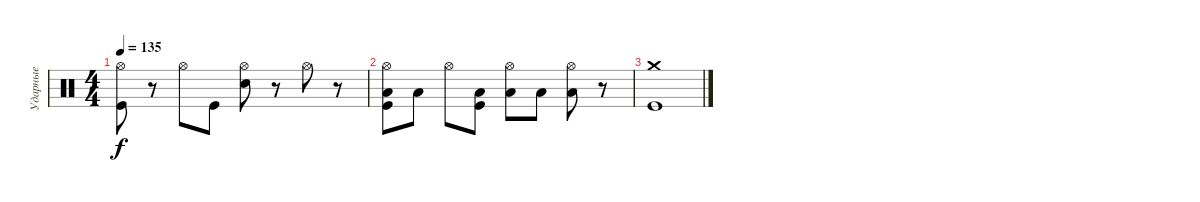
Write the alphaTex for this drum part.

\track ("Ударные" "Ударные") {instrument percussion}
\staff {score}
\articulation defaults
\ts (4 4)
\tempo 135
\clef neutral
\ks c
("Hi-Hat (open)" "Kick (hit)").8{dy f} r.8 "Hi-Hat (open)".8 "Kick (hit)".8 ("Hi-Hat (open)" "Electric Snare (hit)").8 r.8 "Hi-Hat (open)".8 r.8 |
("Hi-Hat (open)" "Low Floor Tom (hit)" "Kick (hit)").8 "Low Floor Tom (hit)".8 "Hi-Hat (open)".8 ("Low Floor Tom (hit)" "Kick (hit)").8 ("Hi-Hat (open)" "Low Floor Tom (hit)").8 "Low Floor Tom (hit)".8 ("Hi-Hat (open)" "Low Floor Tom (hit)").8 r.8 |
("Crash medium (hit)" "Kick (hit)").1
